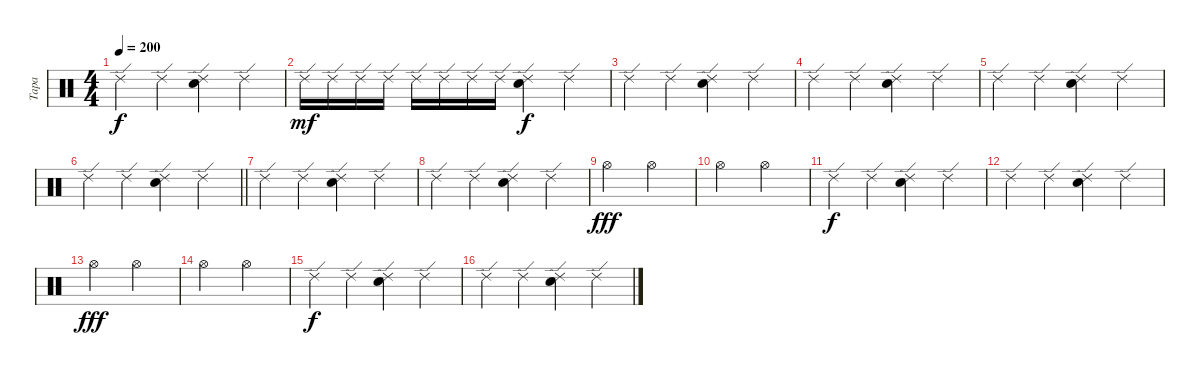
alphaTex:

\track ("Tapa" "Tapa") {instrument percussion}
\staff {score}
\articulation defaults
\ts (4 4)
\tempo 200
\clef neutral
\ks c "Ride (edge) 2".4{dy f} "Ride (edge) 2".4
("Ride (edge) 2" "Snare (hit) 2").4 "Ride (edge) 2".4 |
"Ride (edge) 2".16{dy mf} "Ride (edge) 2".16 "Ride (edge) 2".16 "Ride (edge) 2".16 "Ride (edge) 2".16 "Ride (edge) 2".16 "Ride (edge) 2".16 "Ride (edge) 2".16 ("Ride (edge) 2" "Snare (hit) 2").4{dy f} "Ride (edge) 2".4 |
"Ride (edge) 2".4 "Ride (edge) 2".4 ("Ride (edge) 2" "Snare (hit) 2").4 "Ride (edge) 2".4 |
"Ride (edge) 2".4 "Ride (edge) 2".4 ("Ride (edge) 2" "Snare (hit) 2").4 "Ride (edge) 2".4 |
"Ride (edge) 2".4 "Ride (edge) 2".4 ("Ride (edge) 2" "Snare (hit) 2").4 "Ride (edge) 2".4 |
\barLineRight lightlight "Ride (edge) 2".4 "Ride (edge) 2".4
("Ride (edge) 2" "Snare (hit) 2").4 "Ride (edge) 2".4 |
"Ride (edge) 2".4 "Ride (edge) 2".4 ("Ride (edge) 2" "Snare (hit) 2").4 "Ride (edge) 2".4 |
"Ride (edge) 2".4 "Ride (edge) 2".4 ("Ride (edge) 2" "Snare (hit) 2").4 "Ride (edge) 2".4 |
"Hi-Hat (open)".2{dy fff} "Hi-Hat (open)".2 |
"Hi-Hat (open)".2 "Hi-Hat (open)".2 |
"Ride (edge) 2".4{dy f} "Ride (edge) 2".4 ("Ride (edge) 2" "Snare (hit) 2").4 "Ride (edge) 2".4 |
"Ride (edge) 2".4 "Ride (edge) 2".4 ("Ride (edge) 2" "Snare (hit) 2").4 "Ride (edge) 2".4 |
"Hi-Hat (open)".2{dy fff} "Hi-Hat (open)".2 |
"Hi-Hat (open)".2 "Hi-Hat (open)".2 |
"Ride (edge) 2".4{dy f} "Ride (edge) 2".4 ("Ride (edge) 2" "Snare (hit) 2").4 "Ride (edge) 2".4 |
"Ride (edge) 2".4 "Ride (edge) 2".4 ("Ride (edge) 2" "Snare (hit) 2").4 "Ride (edge) 2".4
